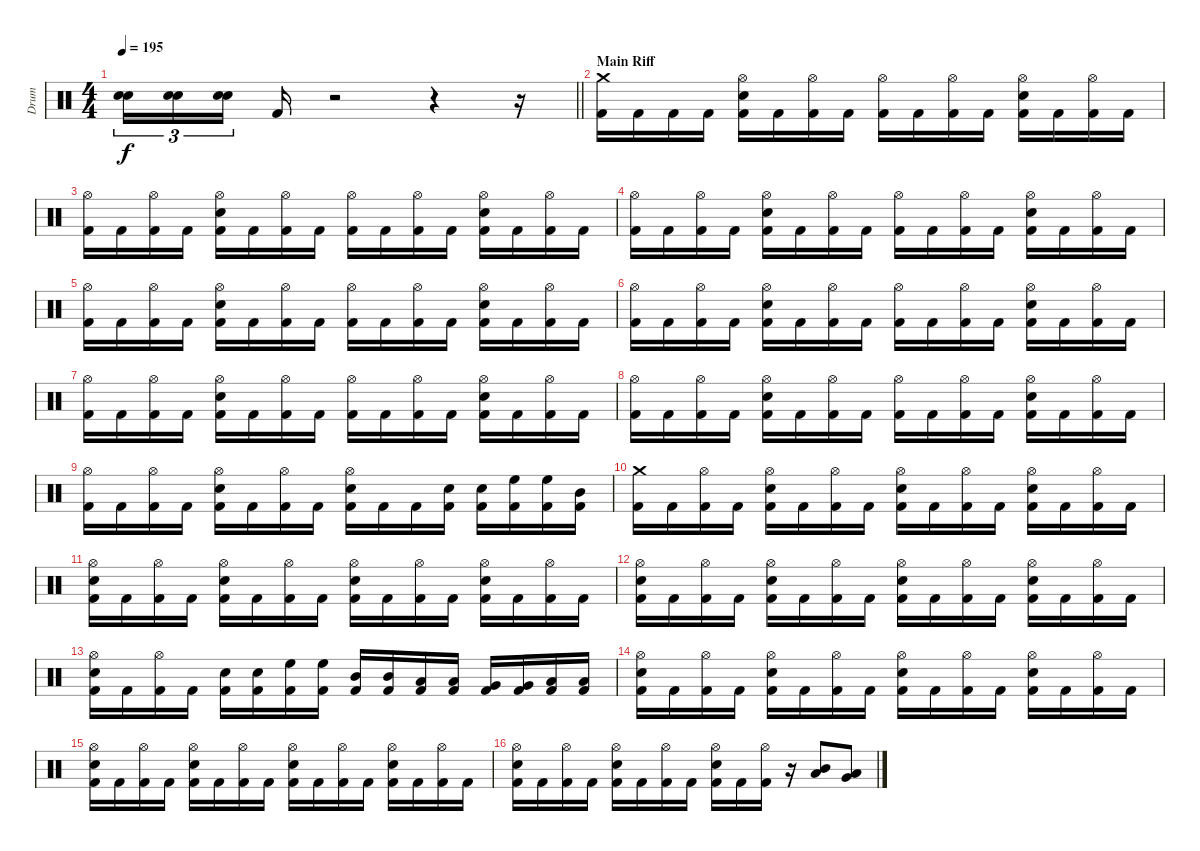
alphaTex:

\track ("Drum" "Drum") {instrument percussion}
\staff {score}
\articulation defaults
\ts (4 4)
\tempo 195
\clef neutral
\barLineRight lightlight
\ks c
("Snare (hit)" "Snare (hit) 2").16{tu (3 2) dy f} ("Snare (hit)" "Snare (hit) 2").16{tu (3 2)} ("Snare (hit)" "Snare (hit) 2").16{tu (3 2) beam splitsecondary} "Kick (hit) 2".16 r.2 r.4 r.16 |
\section ("" "Main Riff")
("Crash medium (hit)" "Kick (hit) 2").16 "Kick (hit) 2".16 "Kick (hit) 2".16 "Kick (hit) 2".16 ("Hi-Hat (open)" "Snare (hit) 2" "Kick (hit) 2").16 "Kick (hit) 2".16 ("Hi-Hat (open)" "Kick (hit) 2").16 "Kick (hit) 2".16 ("Hi-Hat (open)" "Kick (hit) 2").16 "Kick (hit) 2".16 ("Hi-Hat (open)" "Kick (hit) 2").16 "Kick (hit) 2".16 ("Hi-Hat (open)" "Snare (hit) 2" "Kick (hit) 2").16 "Kick (hit) 2".16 ("Hi-Hat (open)" "Kick (hit) 2").16 "Kick (hit) 2".16 |
("Hi-Hat (open)" "Kick (hit) 2").16 "Kick (hit) 2".16 ("Hi-Hat (open)" "Kick (hit) 2").16 "Kick (hit) 2".16 ("Hi-Hat (open)" "Snare (hit) 2" "Kick (hit) 2").16 "Kick (hit) 2".16 ("Hi-Hat (open)" "Kick (hit) 2").16 "Kick (hit) 2".16 ("Hi-Hat (open)" "Kick (hit) 2").16 "Kick (hit) 2".16 ("Hi-Hat (open)" "Kick (hit) 2").16 "Kick (hit) 2".16 ("Hi-Hat (open)" "Snare (hit) 2" "Kick (hit) 2").16 "Kick (hit) 2".16 ("Hi-Hat (open)" "Kick (hit) 2").16 "Kick (hit) 2".16 |
("Hi-Hat (open)" "Kick (hit) 2").16 "Kick (hit) 2".16 ("Hi-Hat (open)" "Kick (hit) 2").16 "Kick (hit) 2".16 ("Hi-Hat (open)" "Snare (hit) 2" "Kick (hit) 2").16 "Kick (hit) 2".16 ("Hi-Hat (open)" "Kick (hit) 2").16 "Kick (hit) 2".16 ("Hi-Hat (open)" "Kick (hit) 2").16 "Kick (hit) 2".16 ("Hi-Hat (open)" "Kick (hit) 2").16 "Kick (hit) 2".16 ("Hi-Hat (open)" "Snare (hit) 2" "Kick (hit) 2").16 "Kick (hit) 2".16 ("Hi-Hat (open)" "Kick (hit) 2").16 "Kick (hit) 2".16 |
("Hi-Hat (open)" "Kick (hit) 2").16 "Kick (hit) 2".16 ("Hi-Hat (open)" "Kick (hit) 2").16 "Kick (hit) 2".16 ("Hi-Hat (open)" "Snare (hit) 2" "Kick (hit) 2").16 "Kick (hit) 2".16 ("Hi-Hat (open)" "Kick (hit) 2").16 "Kick (hit) 2".16 ("Hi-Hat (open)" "Kick (hit) 2").16 "Kick (hit) 2".16 ("Hi-Hat (open)" "Kick (hit) 2").16 "Kick (hit) 2".16 ("Hi-Hat (open)" "Snare (hit) 2" "Kick (hit) 2").16 "Kick (hit) 2".16 ("Hi-Hat (open)" "Kick (hit) 2").16 "Kick (hit) 2".16 |
("Hi-Hat (open)" "Kick (hit) 2").16 "Kick (hit) 2".16 ("Hi-Hat (open)" "Kick (hit) 2").16 "Kick (hit) 2".16 ("Hi-Hat (open)" "Snare (hit) 2" "Kick (hit) 2").16 "Kick (hit) 2".16 ("Hi-Hat (open)" "Kick (hit) 2").16 "Kick (hit) 2".16 ("Hi-Hat (open)" "Kick (hit) 2").16 "Kick (hit) 2".16 ("Hi-Hat (open)" "Kick (hit) 2").16 "Kick (hit) 2".16 ("Hi-Hat (open)" "Snare (hit) 2" "Kick (hit) 2").16 "Kick (hit) 2".16 ("Hi-Hat (open)" "Kick (hit) 2").16 "Kick (hit) 2".16 |
("Hi-Hat (open)" "Kick (hit) 2").16 "Kick (hit) 2".16 ("Hi-Hat (open)" "Kick (hit) 2").16 "Kick (hit) 2".16 ("Hi-Hat (open)" "Snare (hit) 2" "Kick (hit) 2").16 "Kick (hit) 2".16 ("Hi-Hat (open)" "Kick (hit) 2").16 "Kick (hit) 2".16 ("Hi-Hat (open)" "Kick (hit) 2").16 "Kick (hit) 2".16 ("Hi-Hat (open)" "Kick (hit) 2").16 "Kick (hit) 2".16 ("Hi-Hat (open)" "Snare (hit) 2" "Kick (hit) 2").16 "Kick (hit) 2".16 ("Hi-Hat (open)" "Kick (hit) 2").16 "Kick (hit) 2".16 |
("Hi-Hat (open)" "Kick (hit) 2").16 "Kick (hit) 2".16 ("Hi-Hat (open)" "Kick (hit) 2").16 "Kick (hit) 2".16 ("Hi-Hat (open)" "Snare (hit) 2" "Kick (hit) 2").16 "Kick (hit) 2".16 ("Hi-Hat (open)" "Kick (hit) 2").16 "Kick (hit) 2".16 ("Hi-Hat (open)" "Kick (hit) 2").16 "Kick (hit) 2".16 ("Hi-Hat (open)" "Kick (hit) 2").16 "Kick (hit) 2".16 ("Hi-Hat (open)" "Snare (hit) 2" "Kick (hit) 2").16 "Kick (hit) 2".16 ("Hi-Hat (open)" "Kick (hit) 2").16 "Kick (hit) 2".16 |
("Hi-Hat (open)" "Kick (hit) 2").16 "Kick (hit) 2".16 ("Hi-Hat (open)" "Kick (hit) 2").16 "Kick (hit) 2".16 ("Hi-Hat (open)" "Snare (hit) 2" "Kick (hit) 2").16 "Kick (hit) 2".16 ("Hi-Hat (open)" "Kick (hit) 2").16 "Kick (hit) 2".16 ("Hi-Hat (open)" "Snare (hit) 2" "Kick (hit) 2").16 "Kick (hit) 2".16 "Kick (hit) 2".16 ("Snare (hit) 2" "Kick (hit) 2").16 ("Snare (hit) 2" "Kick (hit) 2").16 ("High Floor Tom (hit)" "Kick (hit) 2").16 ("High Floor Tom (hit)" "Kick (hit) 2").16 ("Mid Tom (hit)" "Kick (hit) 2").16 |
("Crash medium (hit)" "Kick (hit) 2").16 "Kick (hit) 2".16 ("Hi-Hat (open)" "Kick (hit) 2").16 "Kick (hit) 2".16 ("Hi-Hat (open)" "Snare (hit) 2" "Kick (hit) 2").16 "Kick (hit) 2".16 ("Hi-Hat (open)" "Kick (hit) 2").16 "Kick (hit) 2".16 ("Hi-Hat (open)" "Snare (hit) 2" "Kick (hit) 2").16 "Kick (hit) 2".16 ("Hi-Hat (open)" "Kick (hit) 2").16 "Kick (hit) 2".16 ("Hi-Hat (open)" "Snare (hit) 2" "Kick (hit) 2").16 "Kick (hit) 2".16 ("Hi-Hat (open)" "Kick (hit) 2").16 "Kick (hit) 2".16 |
("Hi-Hat (open)" "Snare (hit) 2" "Kick (hit) 2").16 "Kick (hit) 2".16 ("Hi-Hat (open)" "Kick (hit) 2").16 "Kick (hit) 2".16 ("Hi-Hat (open)" "Snare (hit) 2" "Kick (hit) 2").16 "Kick (hit) 2".16 ("Hi-Hat (open)" "Kick (hit) 2").16 "Kick (hit) 2".16 ("Hi-Hat (open)" "Snare (hit) 2" "Kick (hit) 2").16 "Kick (hit) 2".16 ("Hi-Hat (open)" "Kick (hit) 2").16 "Kick (hit) 2".16 ("Hi-Hat (open)" "Snare (hit) 2" "Kick (hit) 2").16 "Kick (hit) 2".16 ("Hi-Hat (open)" "Kick (hit) 2").16 "Kick (hit) 2".16 |
("Hi-Hat (open)" "Snare (hit) 2" "Kick (hit) 2").16 "Kick (hit) 2".16 ("Hi-Hat (open)" "Kick (hit) 2").16 "Kick (hit) 2".16 ("Hi-Hat (open)" "Snare (hit) 2" "Kick (hit) 2").16 "Kick (hit) 2".16 ("Hi-Hat (open)" "Kick (hit) 2").16 "Kick (hit) 2".16 ("Hi-Hat (open)" "Snare (hit) 2" "Kick (hit) 2").16 "Kick (hit) 2".16 ("Hi-Hat (open)" "Kick (hit) 2").16 "Kick (hit) 2".16 ("Hi-Hat (open)" "Snare (hit) 2" "Kick (hit) 2").16 "Kick (hit) 2".16 ("Hi-Hat (open)" "Kick (hit) 2").16 "Kick (hit) 2".16 |
("Hi-Hat (open)" "Snare (hit) 2" "Kick (hit) 2").16 "Kick (hit) 2".16 ("Hi-Hat (open)" "Kick (hit) 2").16 "Kick (hit) 2".16 ("Snare (hit) 2" "Kick (hit) 2").16 ("Snare (hit) 2" "Kick (hit) 2").16 ("High Floor Tom (hit)" "Kick (hit) 2").16 ("High Floor Tom (hit)" "Kick (hit) 2").16 ("Mid Tom (hit)" "Kick (hit) 2").16 ("Mid Tom (hit)" "Kick (hit) 2").16 ("Low Tom (hit)" "Kick (hit) 2").16 ("Low Tom (hit)" "Kick (hit) 2").16 ("Very Low Tom (hit)" "Kick (hit) 2").16 ("Very Low Tom (hit)" "Kick (hit) 2").16 ("Low Floor Tom (hit)" "Kick (hit) 2").16 ("Low Floor Tom (hit)" "Kick (hit) 2").16 |
("Hi-Hat (open)" "Snare (hit) 2" "Kick (hit) 2").16 "Kick (hit) 2".16 ("Hi-Hat (open)" "Kick (hit) 2").16 "Kick (hit) 2".16 ("Hi-Hat (open)" "Snare (hit) 2" "Kick (hit) 2").16 "Kick (hit) 2".16 ("Hi-Hat (open)" "Kick (hit) 2").16 "Kick (hit) 2".16 ("Hi-Hat (open)" "Snare (hit) 2" "Kick (hit) 2").16 "Kick (hit) 2".16 ("Hi-Hat (open)" "Kick (hit) 2").16 "Kick (hit) 2".16 ("Hi-Hat (open)" "Snare (hit) 2" "Kick (hit) 2").16 "Kick (hit) 2".16 ("Hi-Hat (open)" "Kick (hit) 2").16 "Kick (hit) 2".16 |
("Hi-Hat (open)" "Snare (hit) 2" "Kick (hit) 2").16 "Kick (hit) 2".16 ("Hi-Hat (open)" "Kick (hit) 2").16 "Kick (hit) 2".16 ("Hi-Hat (open)" "Snare (hit) 2" "Kick (hit) 2").16 "Kick (hit) 2".16 ("Hi-Hat (open)" "Kick (hit) 2").16 "Kick (hit) 2".16 ("Hi-Hat (open)" "Snare (hit) 2" "Kick (hit) 2").16 "Kick (hit) 2".16 ("Hi-Hat (open)" "Kick (hit) 2").16 "Kick (hit) 2".16 ("Hi-Hat (open)" "Snare (hit) 2" "Kick (hit) 2").16 "Kick (hit) 2".16 ("Hi-Hat (open)" "Kick (hit) 2").16 "Kick (hit) 2".16 |
("Hi-Hat (open)" "Snare (hit) 2" "Kick (hit) 2").16 "Kick (hit) 2".16 ("Hi-Hat (open)" "Kick (hit) 2").16 "Kick (hit) 2".16 ("Hi-Hat (open)" "Snare (hit) 2" "Kick (hit) 2").16 "Kick (hit) 2".16 ("Hi-Hat (open)" "Kick (hit) 2").16 "Kick (hit) 2".16 ("Hi-Hat (open)" "Snare (hit) 2" "Kick (hit) 2").16 "Kick (hit) 2".16 ("Hi-Hat (open)" "Kick (hit) 2").16 r.16 ("Mid Tom (hit)" "Low Tom (hit)").8 ("Low Tom (hit)" "Very Low Tom (hit)").8
